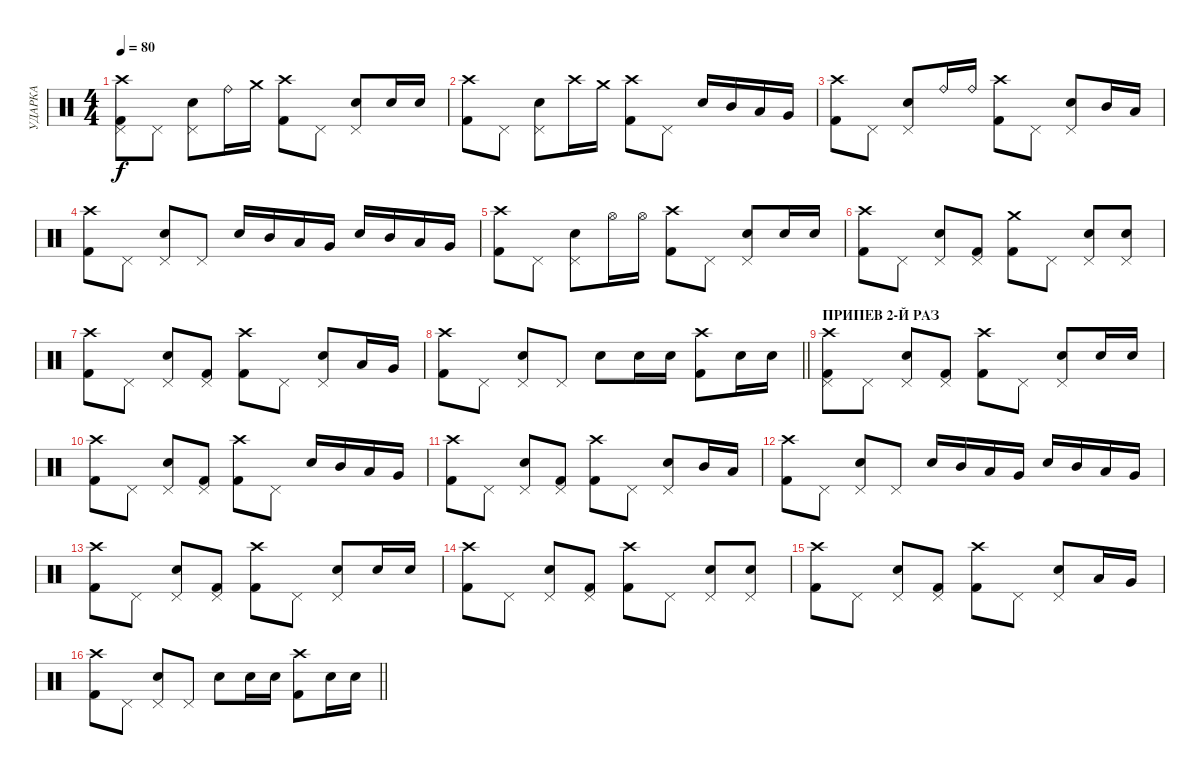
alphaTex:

\track ("УДАРКА" "УДАРКА") {instrument percussion}
\staff {score}
\articulation defaults
\ts (4 4)
\tempo 80
\clef neutral
\ks c
("Pedal Hi-Hat (hit)" "Kick (hit) 2" "Crash high (hit)").8{dy f} "Pedal Hi-Hat (hit)".8 ("Pedal Hi-Hat (hit)" "Electric Snare (hit)").8 "Ride (bell)".16 "Crash medium (hit)".16 ("Crash high (hit)" "Kick (hit) 2").8 "Pedal Hi-Hat (hit)".8 ("Pedal Hi-Hat (hit)" "Electric Snare (hit)").8 "Electric Snare (hit)".16 "Electric Snare (hit)".16 |
("Crash high (hit)" "Kick (hit) 2").8 "Pedal Hi-Hat (hit)".8 ("Pedal Hi-Hat (hit)" "Electric Snare (hit)").8 "Crash high (hit)".16 "Crash medium (hit)".16 ("Crash high (hit)" "Kick (hit) 2").8 "Pedal Hi-Hat (hit)".8 "Electric Snare (hit)".16 "Mid Tom (hit)".16 "Low Tom (hit)".16 "Very Low Tom (hit)".16 |
("Crash high (hit)" "Kick (hit) 2").8 "Pedal Hi-Hat (hit)".8 ("Pedal Hi-Hat (hit)" "Electric Snare (hit)").8 "Ride (bell)".16 "Ride (bell)".16 ("Crash high (hit)" "Kick (hit) 2").8 "Pedal Hi-Hat (hit)".8 ("Pedal Hi-Hat (hit)" "Electric Snare (hit)").8 "Mid Tom (hit)".16 "Low Tom (hit)".16 |
("Kick (hit) 2" "Crash high (hit)").8 "Pedal Hi-Hat (hit)".8 ("Pedal Hi-Hat (hit)" "Electric Snare (hit)").8 "Pedal Hi-Hat (hit)".8 "Electric Snare (hit)".16 "Mid Tom (hit)".16 "Low Tom (hit)".16 "Very Low Tom (hit)".16 "Electric Snare (hit)".16 "Mid Tom (hit)".16 "Low Tom (hit)".16 "Very Low Tom (hit)".16 |
("Crash high (hit)" "Kick (hit) 2").8 "Pedal Hi-Hat (hit)".8 ("Pedal Hi-Hat (hit)" "Electric Snare (hit)").8 "Hi-Hat (open)".16 "Hi-Hat (open)".16 ("Kick (hit) 2" "Crash high (hit)").8 "Pedal Hi-Hat (hit)".8 ("Pedal Hi-Hat (hit)" "Electric Snare (hit)").8 "Electric Snare (hit)".16 "Electric Snare (hit)".16 |
("Kick (hit) 2" "Crash high (hit)").8 "Pedal Hi-Hat (hit)".8 ("Pedal Hi-Hat (hit)" "Electric Snare (hit)").8 ("Pedal Hi-Hat (hit)" "Kick (hit) 2").8 ("Crash medium (hit)" "Kick (hit) 2").8 "Pedal Hi-Hat (hit)".8 ("Pedal Hi-Hat (hit)" "Electric Snare (hit)").8 ("Pedal Hi-Hat (hit)" "Electric Snare (hit)").8 |
("Crash high (hit)" "Kick (hit) 2").8 "Pedal Hi-Hat (hit)".8 ("Pedal Hi-Hat (hit)" "Electric Snare (hit)").8 ("Pedal Hi-Hat (hit)" "Kick (hit) 2").8 ("Crash high (hit)" "Kick (hit) 2").8 "Pedal Hi-Hat (hit)".8 ("Pedal Hi-Hat (hit)" "Electric Snare (hit)").8 "Low Tom (hit)".16 "Very Low Tom (hit)".16 |
\barLineRight lightlight
("Crash high (hit)" "Kick (hit) 2").8 "Pedal Hi-Hat (hit)".8 ("Pedal Hi-Hat (hit)" "Electric Snare (hit)").8 "Pedal Hi-Hat (hit)".8 "Electric Snare (hit)".8 "Electric Snare (hit)".16 "Electric Snare (hit)".16 ("Crash high (hit)" "Kick (hit) 2").8 "Electric Snare (hit)".16 "Electric Snare (hit)".16 |
\section ("" "ПРИПЕВ 2-Й РАЗ")
("Pedal Hi-Hat (hit)" "Kick (hit) 2" "Crash high (hit)").8 "Pedal Hi-Hat (hit)".8 ("Pedal Hi-Hat (hit)" "Electric Snare (hit)").8 ("Pedal Hi-Hat (hit)" "Kick (hit) 2").8 ("Crash high (hit)" "Kick (hit) 2").8 "Pedal Hi-Hat (hit)".8 ("Pedal Hi-Hat (hit)" "Electric Snare (hit)").8 "Electric Snare (hit)".16 "Electric Snare (hit)".16 |
("Crash high (hit)" "Kick (hit) 2").8 "Pedal Hi-Hat (hit)".8 ("Pedal Hi-Hat (hit)" "Electric Snare (hit)").8 ("Pedal Hi-Hat (hit)" "Kick (hit) 2").8 ("Crash high (hit)" "Kick (hit) 2").8 "Pedal Hi-Hat (hit)".8 "Electric Snare (hit)".16 "Mid Tom (hit)".16 "Low Tom (hit)".16 "Very Low Tom (hit)".16 |
("Crash high (hit)" "Kick (hit) 2").8 "Pedal Hi-Hat (hit)".8 ("Pedal Hi-Hat (hit)" "Electric Snare (hit)").8 ("Pedal Hi-Hat (hit)" "Kick (hit) 2").8 ("Crash high (hit)" "Kick (hit) 2").8 "Pedal Hi-Hat (hit)".8 ("Pedal Hi-Hat (hit)" "Electric Snare (hit)").8 "Mid Tom (hit)".16 "Low Tom (hit)".16 |
("Kick (hit) 2" "Crash high (hit)").8 "Pedal Hi-Hat (hit)".8 ("Pedal Hi-Hat (hit)" "Electric Snare (hit)").8 "Pedal Hi-Hat (hit)".8 "Electric Snare (hit)".16 "Mid Tom (hit)".16 "Low Tom (hit)".16 "Very Low Tom (hit)".16 "Electric Snare (hit)".16 "Mid Tom (hit)".16 "Low Tom (hit)".16 "Very Low Tom (hit)".16 |
("Crash high (hit)" "Kick (hit) 2").8 "Pedal Hi-Hat (hit)".8 ("Pedal Hi-Hat (hit)" "Electric Snare (hit)").8 ("Pedal Hi-Hat (hit)" "Kick (hit) 2").8 ("Kick (hit) 2" "Crash high (hit)").8 "Pedal Hi-Hat (hit)".8 ("Pedal Hi-Hat (hit)" "Electric Snare (hit)").8 "Electric Snare (hit)".16 "Electric Snare (hit)".16 |
("Kick (hit) 2" "Crash high (hit)").8 "Pedal Hi-Hat (hit)".8 ("Pedal Hi-Hat (hit)" "Electric Snare (hit)").8 ("Pedal Hi-Hat (hit)" "Kick (hit) 2").8 ("Kick (hit) 2" "Crash high (hit)").8 "Pedal Hi-Hat (hit)".8 ("Pedal Hi-Hat (hit)" "Electric Snare (hit)").8 ("Pedal Hi-Hat (hit)" "Electric Snare (hit)").8 |
("Crash high (hit)" "Kick (hit) 2").8 "Pedal Hi-Hat (hit)".8 ("Pedal Hi-Hat (hit)" "Electric Snare (hit)").8 ("Pedal Hi-Hat (hit)" "Kick (hit) 2").8 ("Crash high (hit)" "Kick (hit) 2").8 "Pedal Hi-Hat (hit)".8 ("Pedal Hi-Hat (hit)" "Electric Snare (hit)").8 "Low Tom (hit)".16 "Very Low Tom (hit)".16 |
\barLineRight lightlight
("Crash high (hit)" "Kick (hit) 2").8 "Pedal Hi-Hat (hit)".8 ("Pedal Hi-Hat (hit)" "Electric Snare (hit)").8 "Pedal Hi-Hat (hit)".8 "Electric Snare (hit)".8 "Electric Snare (hit)".16 "Electric Snare (hit)".16 ("Crash high (hit)" "Kick (hit) 2").8 "Electric Snare (hit)".16 "Electric Snare (hit)".16
